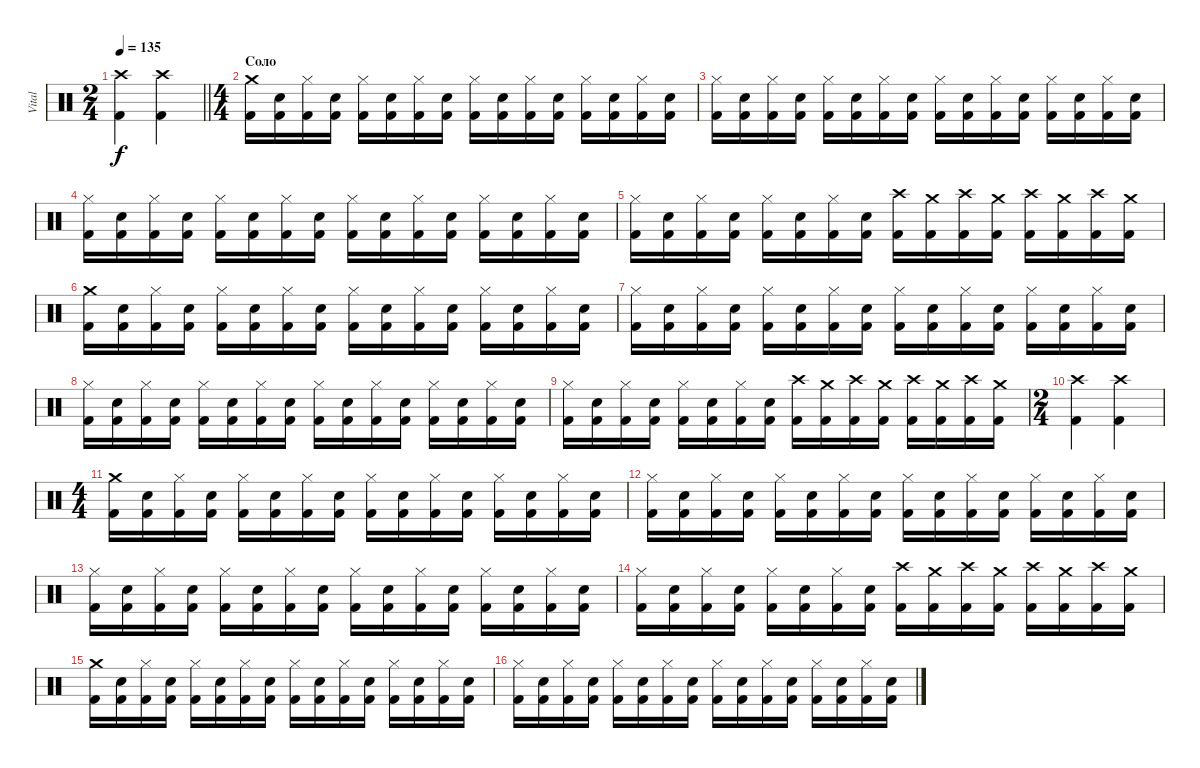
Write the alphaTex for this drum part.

\track ("Vital" "Vital") {instrument percussion}
\staff {score}
\articulation defaults
\ts (2 4)
\tempo 135
\clef neutral
\barLineRight lightlight
\ks c
("Crash high (hit)" "Kick (hit) 2").4{dy f} ("Crash high (hit)" "Kick (hit) 2").4 |
\ts (4 4)
\section ("" "Соло")
("Crash medium (hit)" "Kick (hit) 2").16 ("Snare (hit) 2" "Kick (hit) 2").16 ("Hi-Hat (closed)" "Kick (hit) 2").16 ("Snare (hit) 2" "Kick (hit) 2").16 ("Hi-Hat (closed)" "Kick (hit) 2").16 ("Snare (hit) 2" "Kick (hit) 2").16 ("Hi-Hat (closed)" "Kick (hit) 2").16 ("Snare (hit) 2" "Kick (hit) 2").16 ("Hi-Hat (closed)" "Kick (hit) 2").16 ("Snare (hit) 2" "Kick (hit) 2").16 ("Hi-Hat (closed)" "Kick (hit) 2").16 ("Snare (hit) 2" "Kick (hit) 2").16 ("Hi-Hat (closed)" "Kick (hit) 2").16 ("Snare (hit) 2" "Kick (hit) 2").16 ("Hi-Hat (closed)" "Kick (hit) 2").16 ("Snare (hit) 2" "Kick (hit) 2").16 |
("Hi-Hat (closed)" "Kick (hit) 2").16 ("Snare (hit) 2" "Kick (hit) 2").16 ("Hi-Hat (closed)" "Kick (hit) 2").16 ("Snare (hit) 2" "Kick (hit) 2").16 ("Hi-Hat (closed)" "Kick (hit) 2").16 ("Snare (hit) 2" "Kick (hit) 2").16 ("Hi-Hat (closed)" "Kick (hit) 2").16 ("Snare (hit) 2" "Kick (hit) 2").16 ("Hi-Hat (closed)" "Kick (hit) 2").16 ("Snare (hit) 2" "Kick (hit) 2").16 ("Hi-Hat (closed)" "Kick (hit) 2").16 ("Snare (hit) 2" "Kick (hit) 2").16 ("Hi-Hat (closed)" "Kick (hit) 2").16 ("Snare (hit) 2" "Kick (hit) 2").16 ("Hi-Hat (closed)" "Kick (hit) 2").16 ("Snare (hit) 2" "Kick (hit) 2").16 |
("Hi-Hat (closed)" "Kick (hit) 2").16 ("Snare (hit) 2" "Kick (hit) 2").16 ("Hi-Hat (closed)" "Kick (hit) 2").16 ("Snare (hit) 2" "Kick (hit) 2").16 ("Hi-Hat (closed)" "Kick (hit) 2").16 ("Snare (hit) 2" "Kick (hit) 2").16 ("Hi-Hat (closed)" "Kick (hit) 2").16 ("Snare (hit) 2" "Kick (hit) 2").16 ("Hi-Hat (closed)" "Kick (hit) 2").16 ("Snare (hit) 2" "Kick (hit) 2").16 ("Hi-Hat (closed)" "Kick (hit) 2").16 ("Snare (hit) 2" "Kick (hit) 2").16 ("Hi-Hat (closed)" "Kick (hit) 2").16 ("Snare (hit) 2" "Kick (hit) 2").16 ("Hi-Hat (closed)" "Kick (hit) 2").16 ("Snare (hit) 2" "Kick (hit) 2").16 |
("Hi-Hat (closed)" "Kick (hit) 2").16 ("Snare (hit) 2" "Kick (hit) 2").16 ("Hi-Hat (closed)" "Kick (hit) 2").16 ("Snare (hit) 2" "Kick (hit) 2").16 ("Hi-Hat (closed)" "Kick (hit) 2").16 ("Snare (hit) 2" "Kick (hit) 2").16 ("Hi-Hat (closed)" "Kick (hit) 2").16 ("Snare (hit) 2" "Kick (hit) 2").16 ("Crash high (hit)" "Kick (hit) 2").16 ("Crash medium (hit)" "Kick (hit) 2").16 ("Crash high (hit)" "Kick (hit) 2").16 ("Crash medium (hit)" "Kick (hit) 2").16 ("Crash high (hit)" "Kick (hit) 2").16 ("Crash medium (hit)" "Kick (hit) 2").16 ("Crash high (hit)" "Kick (hit) 2").16 ("Crash medium (hit)" "Kick (hit) 2").16 |
("Crash medium (hit)" "Kick (hit) 2").16 ("Snare (hit) 2" "Kick (hit) 2").16 ("Hi-Hat (closed)" "Kick (hit) 2").16 ("Snare (hit) 2" "Kick (hit) 2").16 ("Hi-Hat (closed)" "Kick (hit) 2").16 ("Snare (hit) 2" "Kick (hit) 2").16 ("Hi-Hat (closed)" "Kick (hit) 2").16 ("Snare (hit) 2" "Kick (hit) 2").16 ("Hi-Hat (closed)" "Kick (hit) 2").16 ("Snare (hit) 2" "Kick (hit) 2").16 ("Hi-Hat (closed)" "Kick (hit) 2").16 ("Snare (hit) 2" "Kick (hit) 2").16 ("Hi-Hat (closed)" "Kick (hit) 2").16 ("Snare (hit) 2" "Kick (hit) 2").16 ("Hi-Hat (closed)" "Kick (hit) 2").16 ("Snare (hit) 2" "Kick (hit) 2").16 |
("Hi-Hat (closed)" "Kick (hit) 2").16 ("Snare (hit) 2" "Kick (hit) 2").16 ("Hi-Hat (closed)" "Kick (hit) 2").16 ("Snare (hit) 2" "Kick (hit) 2").16 ("Hi-Hat (closed)" "Kick (hit) 2").16 ("Snare (hit) 2" "Kick (hit) 2").16 ("Hi-Hat (closed)" "Kick (hit) 2").16 ("Snare (hit) 2" "Kick (hit) 2").16 ("Hi-Hat (closed)" "Kick (hit) 2").16 ("Snare (hit) 2" "Kick (hit) 2").16 ("Hi-Hat (closed)" "Kick (hit) 2").16 ("Snare (hit) 2" "Kick (hit) 2").16 ("Hi-Hat (closed)" "Kick (hit) 2").16 ("Snare (hit) 2" "Kick (hit) 2").16 ("Hi-Hat (closed)" "Kick (hit) 2").16 ("Snare (hit) 2" "Kick (hit) 2").16 |
("Hi-Hat (closed)" "Kick (hit) 2").16 ("Snare (hit) 2" "Kick (hit) 2").16 ("Hi-Hat (closed)" "Kick (hit) 2").16 ("Snare (hit) 2" "Kick (hit) 2").16 ("Hi-Hat (closed)" "Kick (hit) 2").16 ("Snare (hit) 2" "Kick (hit) 2").16 ("Hi-Hat (closed)" "Kick (hit) 2").16 ("Snare (hit) 2" "Kick (hit) 2").16 ("Hi-Hat (closed)" "Kick (hit) 2").16 ("Snare (hit) 2" "Kick (hit) 2").16 ("Hi-Hat (closed)" "Kick (hit) 2").16 ("Snare (hit) 2" "Kick (hit) 2").16 ("Hi-Hat (closed)" "Kick (hit) 2").16 ("Snare (hit) 2" "Kick (hit) 2").16 ("Hi-Hat (closed)" "Kick (hit) 2").16 ("Snare (hit) 2" "Kick (hit) 2").16 |
("Hi-Hat (closed)" "Kick (hit) 2").16 ("Snare (hit) 2" "Kick (hit) 2").16 ("Hi-Hat (closed)" "Kick (hit) 2").16 ("Snare (hit) 2" "Kick (hit) 2").16 ("Hi-Hat (closed)" "Kick (hit) 2").16 ("Snare (hit) 2" "Kick (hit) 2").16 ("Hi-Hat (closed)" "Kick (hit) 2").16 ("Snare (hit) 2" "Kick (hit) 2").16 ("Crash high (hit)" "Kick (hit) 2").16 ("Crash medium (hit)" "Kick (hit) 2").16 ("Crash high (hit)" "Kick (hit) 2").16 ("Crash medium (hit)" "Kick (hit) 2").16 ("Crash high (hit)" "Kick (hit) 2").16 ("Crash medium (hit)" "Kick (hit) 2").16 ("Crash high (hit)" "Kick (hit) 2").16 ("Crash medium (hit)" "Kick (hit) 2").16 |
\ts (2 4)
("Crash high (hit)" "Kick (hit) 2").4 ("Crash high (hit)" "Kick (hit) 2").4 |
\ts (4 4)
("Crash medium (hit)" "Kick (hit) 2").16 ("Snare (hit) 2" "Kick (hit) 2").16 ("Hi-Hat (closed)" "Kick (hit) 2").16 ("Snare (hit) 2" "Kick (hit) 2").16 ("Hi-Hat (closed)" "Kick (hit) 2").16 ("Snare (hit) 2" "Kick (hit) 2").16 ("Hi-Hat (closed)" "Kick (hit) 2").16 ("Snare (hit) 2" "Kick (hit) 2").16 ("Hi-Hat (closed)" "Kick (hit) 2").16 ("Snare (hit) 2" "Kick (hit) 2").16 ("Hi-Hat (closed)" "Kick (hit) 2").16 ("Snare (hit) 2" "Kick (hit) 2").16 ("Hi-Hat (closed)" "Kick (hit) 2").16 ("Snare (hit) 2" "Kick (hit) 2").16 ("Hi-Hat (closed)" "Kick (hit) 2").16 ("Snare (hit) 2" "Kick (hit) 2").16 |
("Hi-Hat (closed)" "Kick (hit) 2").16 ("Snare (hit) 2" "Kick (hit) 2").16 ("Hi-Hat (closed)" "Kick (hit) 2").16 ("Snare (hit) 2" "Kick (hit) 2").16 ("Hi-Hat (closed)" "Kick (hit) 2").16 ("Snare (hit) 2" "Kick (hit) 2").16 ("Hi-Hat (closed)" "Kick (hit) 2").16 ("Snare (hit) 2" "Kick (hit) 2").16 ("Hi-Hat (closed)" "Kick (hit) 2").16 ("Snare (hit) 2" "Kick (hit) 2").16 ("Hi-Hat (closed)" "Kick (hit) 2").16 ("Snare (hit) 2" "Kick (hit) 2").16 ("Hi-Hat (closed)" "Kick (hit) 2").16 ("Snare (hit) 2" "Kick (hit) 2").16 ("Hi-Hat (closed)" "Kick (hit) 2").16 ("Snare (hit) 2" "Kick (hit) 2").16 |
("Hi-Hat (closed)" "Kick (hit) 2").16 ("Snare (hit) 2" "Kick (hit) 2").16 ("Hi-Hat (closed)" "Kick (hit) 2").16 ("Snare (hit) 2" "Kick (hit) 2").16 ("Hi-Hat (closed)" "Kick (hit) 2").16 ("Snare (hit) 2" "Kick (hit) 2").16 ("Hi-Hat (closed)" "Kick (hit) 2").16 ("Snare (hit) 2" "Kick (hit) 2").16 ("Hi-Hat (closed)" "Kick (hit) 2").16 ("Snare (hit) 2" "Kick (hit) 2").16 ("Hi-Hat (closed)" "Kick (hit) 2").16 ("Snare (hit) 2" "Kick (hit) 2").16 ("Hi-Hat (closed)" "Kick (hit) 2").16 ("Snare (hit) 2" "Kick (hit) 2").16 ("Hi-Hat (closed)" "Kick (hit) 2").16 ("Snare (hit) 2" "Kick (hit) 2").16 |
("Hi-Hat (closed)" "Kick (hit) 2").16 ("Snare (hit) 2" "Kick (hit) 2").16 ("Hi-Hat (closed)" "Kick (hit) 2").16 ("Snare (hit) 2" "Kick (hit) 2").16 ("Hi-Hat (closed)" "Kick (hit) 2").16 ("Snare (hit) 2" "Kick (hit) 2").16 ("Hi-Hat (closed)" "Kick (hit) 2").16 ("Snare (hit) 2" "Kick (hit) 2").16 ("Crash high (hit)" "Kick (hit) 2").16 ("Crash medium (hit)" "Kick (hit) 2").16 ("Crash high (hit)" "Kick (hit) 2").16 ("Crash medium (hit)" "Kick (hit) 2").16 ("Crash high (hit)" "Kick (hit) 2").16 ("Crash medium (hit)" "Kick (hit) 2").16 ("Crash high (hit)" "Kick (hit) 2").16 ("Crash medium (hit)" "Kick (hit) 2").16 |
("Crash medium (hit)" "Kick (hit) 2").16 ("Snare (hit) 2" "Kick (hit) 2").16 ("Hi-Hat (closed)" "Kick (hit) 2").16 ("Snare (hit) 2" "Kick (hit) 2").16 ("Hi-Hat (closed)" "Kick (hit) 2").16 ("Snare (hit) 2" "Kick (hit) 2").16 ("Hi-Hat (closed)" "Kick (hit) 2").16 ("Snare (hit) 2" "Kick (hit) 2").16 ("Hi-Hat (closed)" "Kick (hit) 2").16 ("Snare (hit) 2" "Kick (hit) 2").16 ("Hi-Hat (closed)" "Kick (hit) 2").16 ("Snare (hit) 2" "Kick (hit) 2").16 ("Hi-Hat (closed)" "Kick (hit) 2").16 ("Snare (hit) 2" "Kick (hit) 2").16 ("Hi-Hat (closed)" "Kick (hit) 2").16 ("Snare (hit) 2" "Kick (hit) 2").16 |
("Hi-Hat (closed)" "Kick (hit) 2").16 ("Snare (hit) 2" "Kick (hit) 2").16 ("Hi-Hat (closed)" "Kick (hit) 2").16 ("Snare (hit) 2" "Kick (hit) 2").16 ("Hi-Hat (closed)" "Kick (hit) 2").16 ("Snare (hit) 2" "Kick (hit) 2").16 ("Hi-Hat (closed)" "Kick (hit) 2").16 ("Snare (hit) 2" "Kick (hit) 2").16 ("Hi-Hat (closed)" "Kick (hit) 2").16 ("Snare (hit) 2" "Kick (hit) 2").16 ("Hi-Hat (closed)" "Kick (hit) 2").16 ("Snare (hit) 2" "Kick (hit) 2").16 ("Hi-Hat (closed)" "Kick (hit) 2").16 ("Snare (hit) 2" "Kick (hit) 2").16 ("Hi-Hat (closed)" "Kick (hit) 2").16 ("Snare (hit) 2" "Kick (hit) 2").16
